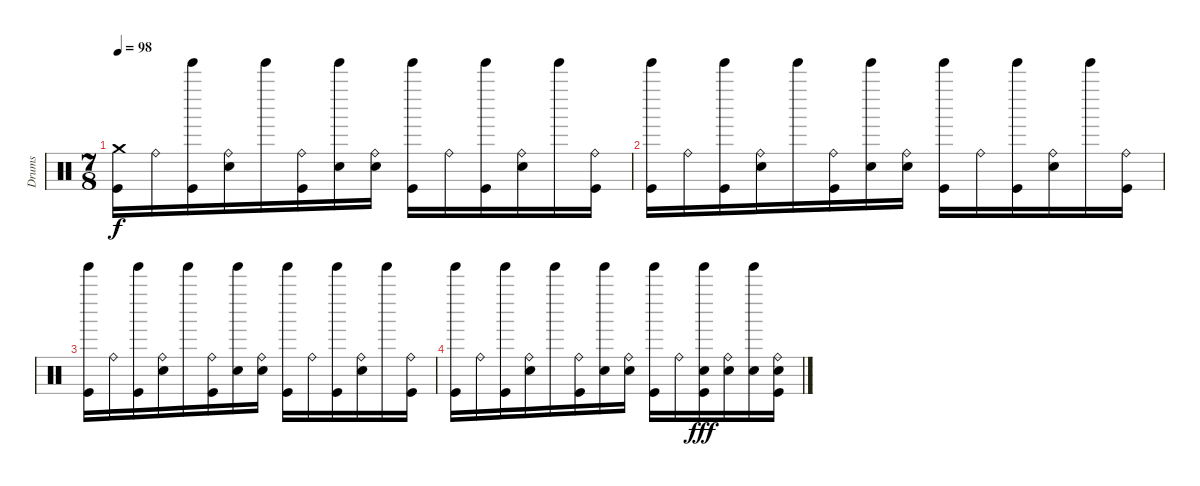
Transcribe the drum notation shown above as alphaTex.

\track ("Drums" "Drums") {instrument percussion}
\staff {score}
\articulation defaults
\ts (7 8)
\tempo 98
\clef neutral
\ks c
("Crash medium (hit)" "Kick (hit)").16{dy f volume 0} "Ride (bell)".16 ("Tinkle Bell (hit)" "Kick (hit)").16 ("Ride (bell)" "Electric Snare (hit)").16 "Tinkle Bell (hit)".16 ("Ride (bell)" "Kick (hit)").16 ("Tinkle Bell (hit)" "Electric Snare (hit)").16 ("Ride (bell)" "Electric Snare (hit)").16 ("Tinkle Bell (hit)" "Kick (hit)").16 "Ride (bell)".16 ("Tinkle Bell (hit)" "Kick (hit)").16 ("Ride (bell)" "Electric Snare (hit)").16 "Tinkle Bell (hit)".16 ("Ride (bell)" "Kick (hit)").16 |
("Tinkle Bell (hit)" "Kick (hit)").16 "Ride (bell)".16 ("Tinkle Bell (hit)" "Kick (hit)").16 ("Ride (bell)" "Electric Snare (hit)").16 "Tinkle Bell (hit)".16 ("Ride (bell)" "Kick (hit)").16 ("Tinkle Bell (hit)" "Electric Snare (hit)").16 ("Ride (bell)" "Electric Snare (hit)").16 ("Tinkle Bell (hit)" "Kick (hit)").16 "Ride (bell)".16 ("Tinkle Bell (hit)" "Kick (hit)").16 ("Ride (bell)" "Electric Snare (hit)").16 "Tinkle Bell (hit)".16 ("Ride (bell)" "Kick (hit)").16 |
("Tinkle Bell (hit)" "Kick (hit)").16 "Ride (bell)".16 ("Tinkle Bell (hit)" "Kick (hit)").16 ("Ride (bell)" "Electric Snare (hit)").16 "Tinkle Bell (hit)".16 ("Ride (bell)" "Kick (hit)").16 ("Tinkle Bell (hit)" "Electric Snare (hit)").16 ("Ride (bell)" "Electric Snare (hit)").16 ("Tinkle Bell (hit)" "Kick (hit)").16 "Ride (bell)".16 ("Tinkle Bell (hit)" "Kick (hit)").16 ("Ride (bell)" "Electric Snare (hit)").16 "Tinkle Bell (hit)".16 ("Ride (bell)" "Kick (hit)").16 |
("Tinkle Bell (hit)" "Kick (hit)").16 "Ride (bell)".16 ("Tinkle Bell (hit)" "Kick (hit)").16 ("Ride (bell)" "Electric Snare (hit)").16 "Tinkle Bell (hit)".16 ("Ride (bell)" "Kick (hit)").16 ("Tinkle Bell (hit)" "Electric Snare (hit)").16 ("Ride (bell)" "Electric Snare (hit)").16 ("Tinkle Bell (hit)" "Kick (hit)").16 "Ride (bell)".16 ("Tinkle Bell (hit)" "Electric Snare (hit)" "Kick (hit)").16{dy fff} ("Ride (bell)" "Electric Snare (hit)").16 ("Tinkle Bell (hit)" "Electric Snare (hit)").16 ("Ride (bell)" "Electric Snare (hit)" "Kick (hit)").16
